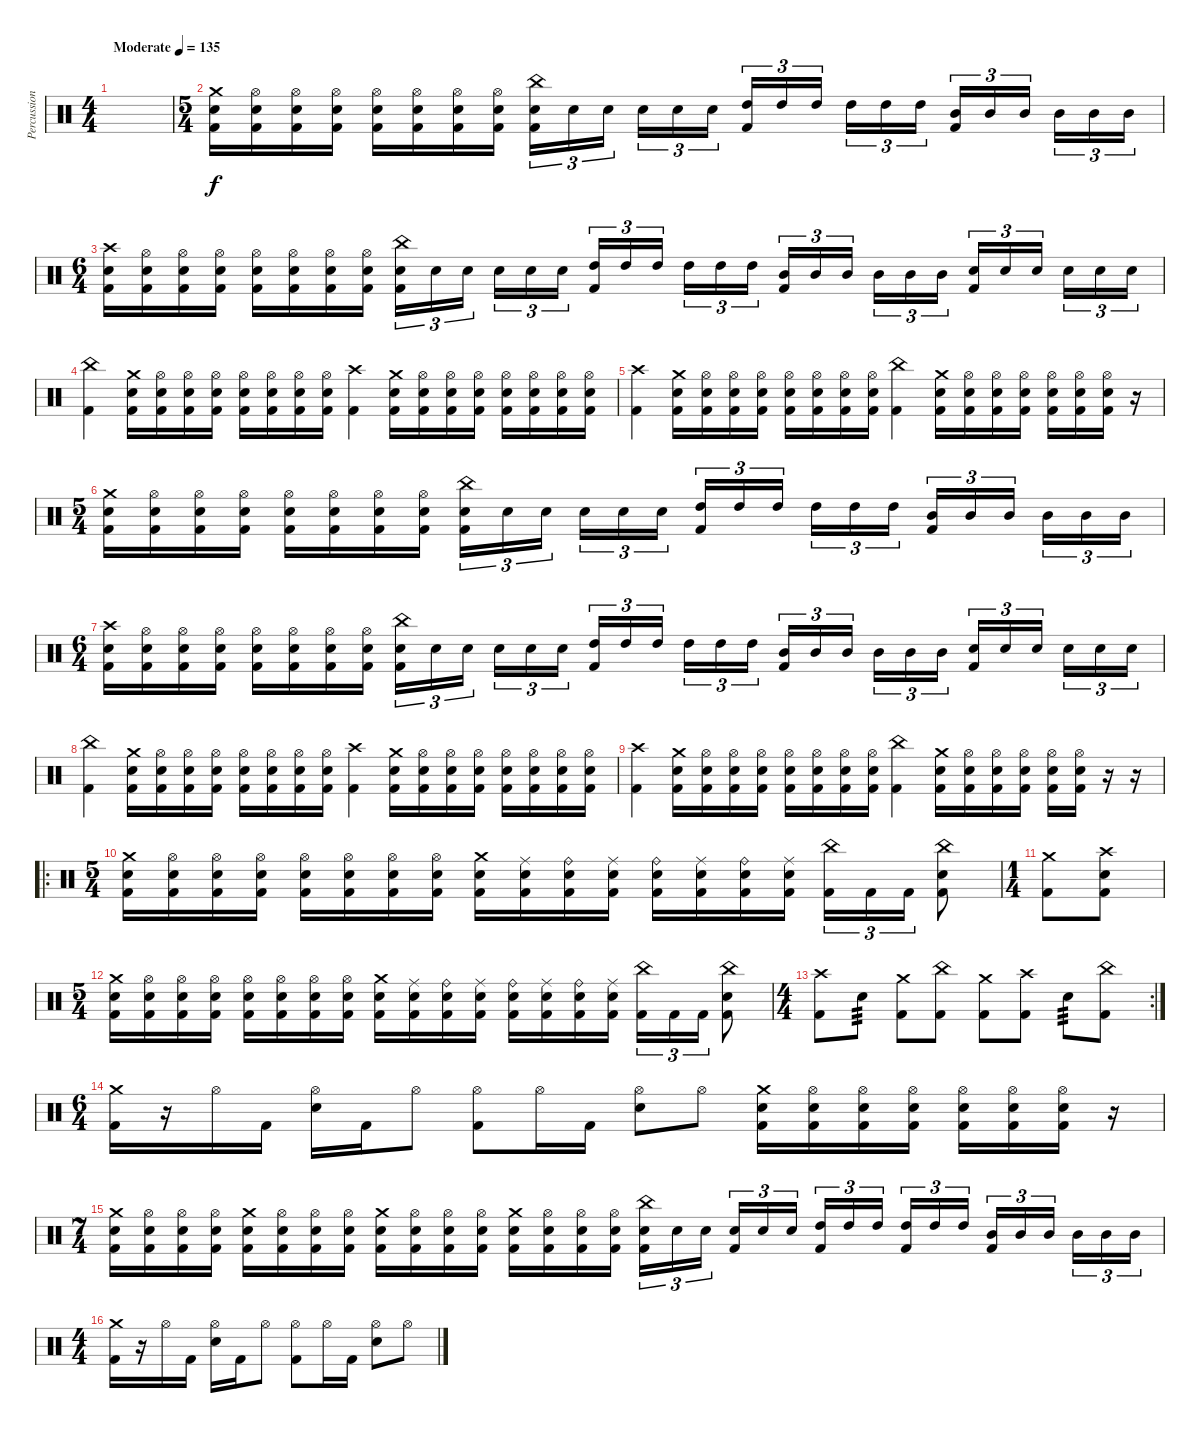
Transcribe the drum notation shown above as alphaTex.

\track ("Percussion" "Percussion") {instrument percussion}
\staff {score}
\articulation defaults
\ts (4 4)
\tempo (135 "Moderate")
\clef neutral
\ks c
|
\ts (5 4)
("Crash medium (hit)" "Kick (hit) 2" "Electric Snare (hit)").16 ("Hi-Hat (open)" "Kick (hit) 2" "Electric Snare (hit)").16 ("Hi-Hat (open)" "Kick (hit) 2" "Electric Snare (hit)").16 ("Hi-Hat (open)" "Kick (hit) 2" "Electric Snare (hit)").16 ("Hi-Hat (open)" "Kick (hit) 2" "Electric Snare (hit)").16 ("Hi-Hat (open)" "Kick (hit) 2" "Electric Snare (hit)").16 ("Hi-Hat (open)" "Kick (hit) 2" "Electric Snare (hit)").16 ("Hi-Hat (open)" "Kick (hit) 2" "Electric Snare (hit)").16 ("China (hit)" "Kick (hit) 2" "Electric Snare (hit)").16{tu (3 2)} "Electric Snare (hit)".16{tu (3 2)} "Electric Snare (hit)".16{tu (3 2) beam splitsecondary} "Electric Snare (hit)".16{tu (3 2)} "Electric Snare (hit)".16{tu (3 2)} "Electric Snare (hit)".16{tu (3 2)} ("Kick (hit) 2" "High Tom (hit)").16{tu (3 2)} "High Tom (hit)".16{tu (3 2)} "High Tom (hit)".16{tu (3 2) beam splitsecondary} "High Tom (hit)".16{tu (3 2)} "High Tom (hit)".16{tu (3 2)} "High Tom (hit)".16{tu (3 2)} ("Kick (hit) 2" "Mid Tom (hit)").16{tu (3 2)} "Mid Tom (hit)".16{tu (3 2)} "Mid Tom (hit)".16{tu (3 2) beam splitsecondary} "Mid Tom (hit)".16{tu (3 2)} "Mid Tom (hit)".16{tu (3 2)} "Mid Tom (hit)".16{tu (3 2)} |
\ts (6 4)
("Crash high (hit)" "Kick (hit) 2" "Electric Snare (hit)").16 ("Hi-Hat (open)" "Kick (hit) 2" "Electric Snare (hit)").16 ("Hi-Hat (open)" "Kick (hit) 2" "Electric Snare (hit)").16 ("Hi-Hat (open)" "Kick (hit) 2" "Electric Snare (hit)").16 ("Hi-Hat (open)" "Kick (hit) 2" "Electric Snare (hit)").16 ("Hi-Hat (open)" "Kick (hit) 2" "Electric Snare (hit)").16 ("Hi-Hat (open)" "Kick (hit) 2" "Electric Snare (hit)").16 ("Hi-Hat (open)" "Kick (hit) 2" "Electric Snare (hit)").16{beam splitsecondary} ("China (hit)" "Kick (hit) 2" "Electric Snare (hit)").16{tu (3 2)} "Electric Snare (hit)".16{tu (3 2)} "Electric Snare (hit)".16{tu (3 2) beam splitsecondary} "Electric Snare (hit)".16{tu (3 2)} "Electric Snare (hit)".16{tu (3 2)} "Electric Snare (hit)".16{tu (3 2)} ("Kick (hit) 2" "High Tom (hit)").16{tu (3 2)} "High Tom (hit)".16{tu (3 2)} "High Tom (hit)".16{tu (3 2) beam splitsecondary} "High Tom (hit)".16{tu (3 2)} "High Tom (hit)".16{tu (3 2)} "High Tom (hit)".16{tu (3 2) beam splitsecondary} ("Kick (hit) 2" "Mid Tom (hit)").16{tu (3 2)} "Mid Tom (hit)".16{tu (3 2)} "Mid Tom (hit)".16{tu (3 2) beam splitsecondary} "Mid Tom (hit)".16{tu (3 2)} "Mid Tom (hit)".16{tu (3 2)} "Mid Tom (hit)".16{tu (3 2) beam splitsecondary} ("Kick (hit) 2" "Electric Snare (hit)").16{tu (3 2)} "Electric Snare (hit)".16{tu (3 2)} "Electric Snare (hit)".16{tu (3 2) beam splitsecondary} "Electric Snare (hit)".16{tu (3 2)} "Electric Snare (hit)".16{tu (3 2)} "Electric Snare (hit)".16{tu (3 2)} |
("Kick (hit) 2" "China (hit)").4 ("Crash medium (hit)" "Kick (hit) 2" "Electric Snare (hit)").16 ("Hi-Hat (open)" "Kick (hit) 2" "Electric Snare (hit)").16 ("Hi-Hat (open)" "Kick (hit) 2" "Electric Snare (hit)").16 ("Hi-Hat (open)" "Kick (hit) 2" "Electric Snare (hit)").16 ("Hi-Hat (open)" "Kick (hit) 2" "Electric Snare (hit)").16 ("Hi-Hat (open)" "Kick (hit) 2" "Electric Snare (hit)").16 ("Hi-Hat (open)" "Kick (hit) 2" "Electric Snare (hit)").16 ("Hi-Hat (open)" "Kick (hit) 2" "Electric Snare (hit)").16 ("Kick (hit) 2" "Crash high (hit)").4 ("Crash medium (hit)" "Kick (hit) 2" "Electric Snare (hit)").16 ("Hi-Hat (open)" "Kick (hit) 2" "Electric Snare (hit)").16 ("Hi-Hat (open)" "Kick (hit) 2" "Electric Snare (hit)").16 ("Hi-Hat (open)" "Kick (hit) 2" "Electric Snare (hit)").16 ("Hi-Hat (open)" "Kick (hit) 2" "Electric Snare (hit)").16 ("Hi-Hat (open)" "Kick (hit) 2" "Electric Snare (hit)").16 ("Hi-Hat (open)" "Kick (hit) 2" "Electric Snare (hit)").16 ("Hi-Hat (open)" "Kick (hit) 2" "Electric Snare (hit)").16 |
("Kick (hit) 2" "Crash high (hit)").4 ("Crash medium (hit)" "Kick (hit) 2" "Electric Snare (hit)").16 ("Hi-Hat (open)" "Kick (hit) 2" "Electric Snare (hit)").16 ("Hi-Hat (open)" "Kick (hit) 2" "Electric Snare (hit)").16 ("Hi-Hat (open)" "Kick (hit) 2" "Electric Snare (hit)").16 ("Hi-Hat (open)" "Kick (hit) 2" "Electric Snare (hit)").16 ("Hi-Hat (open)" "Kick (hit) 2" "Electric Snare (hit)").16 ("Hi-Hat (open)" "Kick (hit) 2" "Electric Snare (hit)").16 ("Hi-Hat (open)" "Kick (hit) 2" "Electric Snare (hit)").16 ("Kick (hit) 2" "China (hit)").4 ("Crash medium (hit)" "Kick (hit) 2" "Electric Snare (hit)").16 ("Hi-Hat (open)" "Kick (hit) 2" "Electric Snare (hit)").16 ("Hi-Hat (open)" "Kick (hit) 2" "Electric Snare (hit)").16 ("Hi-Hat (open)" "Kick (hit) 2" "Electric Snare (hit)").16 ("Hi-Hat (open)" "Kick (hit) 2" "Electric Snare (hit)").16 ("Hi-Hat (open)" "Kick (hit) 2" "Electric Snare (hit)").16 ("Hi-Hat (open)" "Kick (hit) 2" "Electric Snare (hit)").16 r.16 |
\ts (5 4)
("Crash medium (hit)" "Kick (hit) 2" "Electric Snare (hit)").16 ("Hi-Hat (open)" "Kick (hit) 2" "Electric Snare (hit)").16 ("Hi-Hat (open)" "Kick (hit) 2" "Electric Snare (hit)").16 ("Hi-Hat (open)" "Kick (hit) 2" "Electric Snare (hit)").16 ("Hi-Hat (open)" "Kick (hit) 2" "Electric Snare (hit)").16 ("Hi-Hat (open)" "Kick (hit) 2" "Electric Snare (hit)").16 ("Hi-Hat (open)" "Kick (hit) 2" "Electric Snare (hit)").16 ("Hi-Hat (open)" "Kick (hit) 2" "Electric Snare (hit)").16 ("China (hit)" "Kick (hit) 2" "Electric Snare (hit)").16{tu (3 2)} "Electric Snare (hit)".16{tu (3 2)} "Electric Snare (hit)".16{tu (3 2) beam splitsecondary} "Electric Snare (hit)".16{tu (3 2)} "Electric Snare (hit)".16{tu (3 2)} "Electric Snare (hit)".16{tu (3 2)} ("Kick (hit) 2" "High Tom (hit)").16{tu (3 2)} "High Tom (hit)".16{tu (3 2)} "High Tom (hit)".16{tu (3 2) beam splitsecondary} "High Tom (hit)".16{tu (3 2)} "High Tom (hit)".16{tu (3 2)} "High Tom (hit)".16{tu (3 2)} ("Kick (hit) 2" "Mid Tom (hit)").16{tu (3 2)} "Mid Tom (hit)".16{tu (3 2)} "Mid Tom (hit)".16{tu (3 2) beam splitsecondary} "Mid Tom (hit)".16{tu (3 2)} "Mid Tom (hit)".16{tu (3 2)} "Mid Tom (hit)".16{tu (3 2)} |
\ts (6 4)
("Crash high (hit)" "Kick (hit) 2" "Electric Snare (hit)").16 ("Hi-Hat (open)" "Kick (hit) 2" "Electric Snare (hit)").16 ("Hi-Hat (open)" "Kick (hit) 2" "Electric Snare (hit)").16 ("Hi-Hat (open)" "Kick (hit) 2" "Electric Snare (hit)").16 ("Hi-Hat (open)" "Kick (hit) 2" "Electric Snare (hit)").16 ("Hi-Hat (open)" "Kick (hit) 2" "Electric Snare (hit)").16 ("Hi-Hat (open)" "Kick (hit) 2" "Electric Snare (hit)").16 ("Hi-Hat (open)" "Kick (hit) 2" "Electric Snare (hit)").16{beam splitsecondary} ("China (hit)" "Kick (hit) 2" "Electric Snare (hit)").16{tu (3 2)} "Electric Snare (hit)".16{tu (3 2)} "Electric Snare (hit)".16{tu (3 2) beam splitsecondary} "Electric Snare (hit)".16{tu (3 2)} "Electric Snare (hit)".16{tu (3 2)} "Electric Snare (hit)".16{tu (3 2)} ("Kick (hit) 2" "High Tom (hit)").16{tu (3 2)} "High Tom (hit)".16{tu (3 2)} "High Tom (hit)".16{tu (3 2) beam splitsecondary} "High Tom (hit)".16{tu (3 2)} "High Tom (hit)".16{tu (3 2)} "High Tom (hit)".16{tu (3 2) beam splitsecondary} ("Kick (hit) 2" "Mid Tom (hit)").16{tu (3 2)} "Mid Tom (hit)".16{tu (3 2)} "Mid Tom (hit)".16{tu (3 2) beam splitsecondary} "Mid Tom (hit)".16{tu (3 2)} "Mid Tom (hit)".16{tu (3 2)} "Mid Tom (hit)".16{tu (3 2) beam splitsecondary} ("Kick (hit) 2" "Electric Snare (hit)").16{tu (3 2)} "Electric Snare (hit)".16{tu (3 2)} "Electric Snare (hit)".16{tu (3 2) beam splitsecondary} "Electric Snare (hit)".16{tu (3 2)} "Electric Snare (hit)".16{tu (3 2)} "Electric Snare (hit)".16{tu (3 2)} |
("Kick (hit) 2" "China (hit)").4 ("Crash medium (hit)" "Kick (hit) 2" "Electric Snare (hit)").16 ("Hi-Hat (open)" "Kick (hit) 2" "Electric Snare (hit)").16 ("Hi-Hat (open)" "Kick (hit) 2" "Electric Snare (hit)").16 ("Hi-Hat (open)" "Kick (hit) 2" "Electric Snare (hit)").16 ("Hi-Hat (open)" "Kick (hit) 2" "Electric Snare (hit)").16 ("Hi-Hat (open)" "Kick (hit) 2" "Electric Snare (hit)").16 ("Hi-Hat (open)" "Kick (hit) 2" "Electric Snare (hit)").16 ("Hi-Hat (open)" "Kick (hit) 2" "Electric Snare (hit)").16 ("Kick (hit) 2" "Crash high (hit)").4 ("Crash medium (hit)" "Kick (hit) 2" "Electric Snare (hit)").16 ("Hi-Hat (open)" "Kick (hit) 2" "Electric Snare (hit)").16 ("Hi-Hat (open)" "Kick (hit) 2" "Electric Snare (hit)").16 ("Hi-Hat (open)" "Kick (hit) 2" "Electric Snare (hit)").16 ("Hi-Hat (open)" "Kick (hit) 2" "Electric Snare (hit)").16 ("Hi-Hat (open)" "Kick (hit) 2" "Electric Snare (hit)").16 ("Hi-Hat (open)" "Kick (hit) 2" "Electric Snare (hit)").16 ("Hi-Hat (open)" "Kick (hit) 2" "Electric Snare (hit)").16 |
("Kick (hit) 2" "Crash high (hit)").4 ("Crash medium (hit)" "Kick (hit) 2" "Electric Snare (hit)").16 ("Hi-Hat (open)" "Kick (hit) 2" "Electric Snare (hit)").16 ("Hi-Hat (open)" "Kick (hit) 2" "Electric Snare (hit)").16 ("Hi-Hat (open)" "Kick (hit) 2" "Electric Snare (hit)").16 ("Hi-Hat (open)" "Kick (hit) 2" "Electric Snare (hit)").16 ("Hi-Hat (open)" "Kick (hit) 2" "Electric Snare (hit)").16 ("Hi-Hat (open)" "Kick (hit) 2" "Electric Snare (hit)").16 ("Hi-Hat (open)" "Kick (hit) 2" "Electric Snare (hit)").16 ("Kick (hit) 2" "China (hit)").4 ("Crash medium (hit)" "Kick (hit) 2" "Electric Snare (hit)").16 ("Hi-Hat (open)" "Kick (hit) 2" "Electric Snare (hit)").16 ("Hi-Hat (open)" "Kick (hit) 2" "Electric Snare (hit)").16 ("Hi-Hat (open)" "Kick (hit) 2" "Electric Snare (hit)").16 ("Hi-Hat (open)" "Kick (hit) 2" "Electric Snare (hit)").16 ("Hi-Hat (open)" "Kick (hit) 2" "Electric Snare (hit)").16 r.16 r.16 |
\ro
\ts (5 4)
("Crash medium (hit)" "Kick (hit) 2" "Electric Snare (hit)").16 ("Hi-Hat (open)" "Kick (hit) 2" "Electric Snare (hit)").16 ("Hi-Hat (open)" "Kick (hit) 2" "Electric Snare (hit)").16 ("Hi-Hat (open)" "Kick (hit) 2" "Electric Snare (hit)").16 ("Hi-Hat (open)" "Kick (hit) 2" "Electric Snare (hit)").16 ("Hi-Hat (open)" "Kick (hit) 2" "Electric Snare (hit)").16 ("Hi-Hat (open)" "Kick (hit) 2" "Electric Snare (hit)").16 ("Hi-Hat (open)" "Kick (hit) 2" "Electric Snare (hit)").16 ("Crash medium (hit)" "Kick (hit) 2" "Electric Snare (hit)").16 ("Ride (middle)" "Kick (hit) 2" "Electric Snare (hit)").16 ("Ride (bell)" "Kick (hit) 2" "Electric Snare (hit)").16 ("Ride (middle)" "Kick (hit) 2" "Electric Snare (hit)").16 ("Ride (bell)" "Kick (hit) 2" "Electric Snare (hit)").16 ("Ride (middle)" "Kick (hit) 2" "Electric Snare (hit)").16 ("Ride (bell)" "Kick (hit) 2" "Electric Snare (hit)").16 ("Ride (middle)" "Kick (hit) 2" "Electric Snare (hit)").16 ("China (hit)" "Kick (hit) 2").16{tu (3 2)} "Kick (hit) 2".16{tu (3 2)} "Kick (hit) 2".16{tu (3 2)} ("Kick (hit) 2" "China (hit)" "Electric Snare (hit)").8 |
\ts (1 4)
("Crash medium (hit)" "Kick (hit) 2").8 ("Crash high (hit)" "Electric Snare (hit)" "Kick (hit) 2").8 |
\ts (5 4)
("Crash medium (hit)" "Kick (hit) 2" "Electric Snare (hit)").16 ("Hi-Hat (open)" "Kick (hit) 2" "Electric Snare (hit)").16 ("Hi-Hat (open)" "Kick (hit) 2" "Electric Snare (hit)").16 ("Hi-Hat (open)" "Kick (hit) 2" "Electric Snare (hit)").16 ("Hi-Hat (open)" "Kick (hit) 2" "Electric Snare (hit)").16 ("Hi-Hat (open)" "Kick (hit) 2" "Electric Snare (hit)").16 ("Hi-Hat (open)" "Kick (hit) 2" "Electric Snare (hit)").16 ("Hi-Hat (open)" "Kick (hit) 2" "Electric Snare (hit)").16 ("Crash medium (hit)" "Kick (hit) 2" "Electric Snare (hit)").16 ("Ride (middle)" "Kick (hit) 2" "Electric Snare (hit)").16 ("Ride (bell)" "Kick (hit) 2" "Electric Snare (hit)").16 ("Ride (middle)" "Kick (hit) 2" "Electric Snare (hit)").16 ("Ride (bell)" "Kick (hit) 2" "Electric Snare (hit)").16 ("Ride (middle)" "Kick (hit) 2" "Electric Snare (hit)").16 ("Ride (bell)" "Kick (hit) 2" "Electric Snare (hit)").16 ("Ride (middle)" "Kick (hit) 2" "Electric Snare (hit)").16 ("China (hit)" "Kick (hit) 2").16{tu (3 2)} "Kick (hit) 2".16{tu (3 2)} "Kick (hit) 2".16{tu (3 2)} ("Kick (hit) 2" "China (hit)" "Electric Snare (hit)").8 |
\rc 2
\ts (4 4)
("Crash high (hit)" "Kick (hit) 2").8 "Electric Snare (hit)".8{tp 3} ("Crash medium (hit)" "Kick (hit) 2").8 ("China (hit)" "Kick (hit) 2").8 ("Crash medium (hit)" "Kick (hit) 2").8 ("Crash high (hit)" "Kick (hit) 2").8 "Electric Snare (hit)".8{tp 3} ("China (hit)" "Kick (hit) 2").8 |
\ts (6 4)
("Crash medium (hit)" "Kick (hit) 2").16 r.16 "Hi-Hat (open)".16 "Kick (hit) 2".16 ("Hi-Hat (open)" "Electric Snare (hit)").16 "Kick (hit) 2".16 "Hi-Hat (open)".8 ("Hi-Hat (open)" "Kick (hit) 2").8 "Hi-Hat (open)".16 "Kick (hit) 2".16 ("Hi-Hat (open)" "Electric Snare (hit)").8 "Hi-Hat (open)".8 ("Crash medium (hit)" "Kick (hit) 2" "Electric Snare (hit)").16 ("Hi-Hat (open)" "Kick (hit) 2" "Electric Snare (hit)").16 ("Hi-Hat (open)" "Kick (hit) 2" "Electric Snare (hit)").16 ("Hi-Hat (open)" "Kick (hit) 2" "Electric Snare (hit)").16 ("Hi-Hat (open)" "Kick (hit) 2" "Electric Snare (hit)").16 ("Hi-Hat (open)" "Kick (hit) 2" "Electric Snare (hit)").16 ("Hi-Hat (open)" "Kick (hit) 2" "Electric Snare (hit)").16 r.16 |
\ts (7 4)
("Crash medium (hit)" "Kick (hit) 2" "Electric Snare (hit)").16 ("Hi-Hat (open)" "Kick (hit) 2" "Electric Snare (hit)").16 ("Hi-Hat (open)" "Kick (hit) 2" "Electric Snare (hit)").16 ("Hi-Hat (open)" "Kick (hit) 2" "Electric Snare (hit)").16 ("Crash medium (hit)" "Kick (hit) 2" "Electric Snare (hit)").16 ("Hi-Hat (open)" "Kick (hit) 2" "Electric Snare (hit)").16 ("Hi-Hat (open)" "Kick (hit) 2" "Electric Snare (hit)").16 ("Hi-Hat (open)" "Kick (hit) 2" "Electric Snare (hit)").16 ("Crash medium (hit)" "Kick (hit) 2" "Electric Snare (hit)").16 ("Hi-Hat (open)" "Kick (hit) 2" "Electric Snare (hit)").16 ("Hi-Hat (open)" "Kick (hit) 2" "Electric Snare (hit)").16 ("Hi-Hat (open)" "Kick (hit) 2" "Electric Snare (hit)").16 ("Crash medium (hit)" "Kick (hit) 2" "Electric Snare (hit)").16 ("Hi-Hat (open)" "Kick (hit) 2" "Electric Snare (hit)").16 ("Hi-Hat (open)" "Kick (hit) 2" "Electric Snare (hit)").16 ("Hi-Hat (open)" "Kick (hit) 2" "Electric Snare (hit)").16 ("Kick (hit) 2" "Electric Snare (hit)" "China (hit)").16{tu (3 2)} "Electric Snare (hit)".16{tu (3 2)} "Electric Snare (hit)".16{tu (3 2) beam splitsecondary} ("Electric Snare (hit)" "Kick (hit) 2").16{tu (3 2)} "Electric Snare (hit)".16{tu (3 2)} "Electric Snare (hit)".16{tu (3 2)} ("High Tom (hit)" "Kick (hit) 2").16{tu (3 2)} "High Tom (hit)".16{tu (3 2)} "High Tom (hit)".16{tu (3 2) beam splitsecondary} ("High Tom (hit)" "Kick (hit) 2").16{tu (3 2)} "High Tom (hit)".16{tu (3 2)} "High Tom (hit)".16{tu (3 2)} ("Mid Tom (hit)" "Kick (hit) 2").16{tu (3 2)} "Mid Tom (hit)".16{tu (3 2)} "Mid Tom (hit)".16{tu (3 2) beam splitsecondary} "Mid Tom (hit)".16{tu (3 2)} "Mid Tom (hit)".16{tu (3 2)} "Mid Tom (hit)".16{tu (3 2)} |
\ts (4 4)
("Crash medium (hit)" "Kick (hit) 2").16 r.16 "Hi-Hat (open)".16 "Kick (hit) 2".16 ("Hi-Hat (open)" "Electric Snare (hit)").16 "Kick (hit) 2".16 "Hi-Hat (open)".8 ("Hi-Hat (open)" "Kick (hit) 2").8 "Hi-Hat (open)".16 "Kick (hit) 2".16 ("Hi-Hat (open)" "Electric Snare (hit)").8 "Hi-Hat (open)".8
